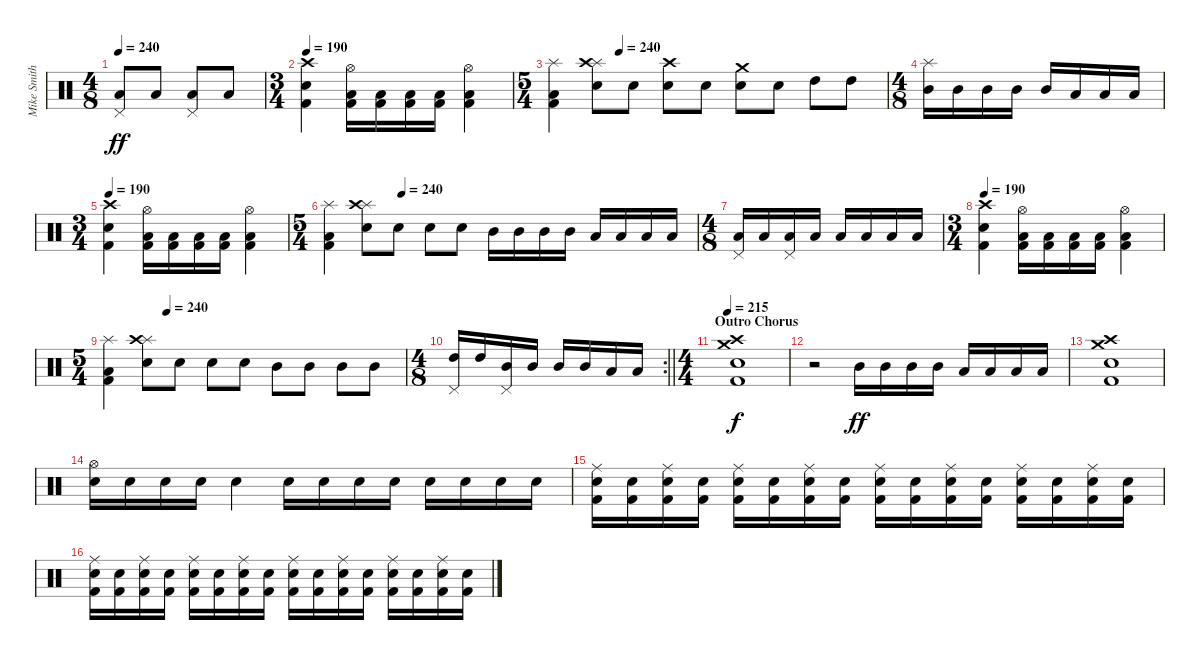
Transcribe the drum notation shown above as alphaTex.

\track ("Mike Smith (Suffocation)" "Mike Smith") {instrument percussion}
\staff {score}
\articulation defaults
\ts (4 8)
\tempo 240
\clef neutral
\ks c
("Pedal Hi-Hat (hit)" "Low Tom (hit)").8{dy ff} "Low Tom (hit)".8 ("Pedal Hi-Hat (hit)" "Low Tom (hit)").8 "Low Tom (hit)".8 |
\ts (3 4)
\tempo 190
("Crash high (hit)" "Snare (hit) 2" "Kick (hit) 2").4 ("Hi-Hat (open)" "Low Tom (hit)" "Kick (hit) 2").16 ("Low Tom (hit)" "Kick (hit) 2").16 ("Low Tom (hit)" "Kick (hit) 2").16 ("Low Tom (hit)" "Kick (hit) 2").16 ("Hi-Hat (open)" "Low Tom (hit)" "Kick (hit) 2").4 |
\ts (5 4)
\tempo (240 0.2)
("Splash (hit)" "Low Tom (hit)" "Kick (hit) 2").4 ("Splash (hit)" "Crash high (hit)" "Snare (hit) 2").8 "Snare (hit) 2".8 ("Crash high (hit)" "Snare (hit) 2").8 "Snare (hit) 2".8 ("Crash medium (hit)" "Snare (hit) 2").8 "Snare (hit) 2".8 "High Tom (hit)".8 "High Tom (hit)".8 |
\ts (4 8)
("Splash (hit)" "Mid Tom (hit)").16 "Mid Tom (hit)".16 "Mid Tom (hit)".16 "Mid Tom (hit)".16 "Mid Tom (hit)".16 "Low Tom (hit)".16 "Low Tom (hit)".16 "Low Tom (hit)".16 |
\ts (3 4)
\tempo 190
("Crash high (hit)" "Snare (hit) 2" "Kick (hit) 2").4 ("Hi-Hat (open)" "Low Tom (hit)" "Kick (hit) 2").16 ("Low Tom (hit)" "Kick (hit) 2").16 ("Low Tom (hit)" "Kick (hit) 2").16 ("Low Tom (hit)" "Kick (hit) 2").16 ("Hi-Hat (open)" "Low Tom (hit)" "Kick (hit) 2").4 |
\ts (5 4)
\tempo (240 0.2)
("Splash (hit)" "Low Tom (hit)" "Kick (hit) 2").4 ("Splash (hit)" "Crash high (hit)" "Snare (hit) 2").8 "Snare (hit) 2".8 "Snare (hit) 2".8 "Snare (hit) 2".8 "Mid Tom (hit)".16 "Mid Tom (hit)".16 "Mid Tom (hit)".16 "Mid Tom (hit)".16 "Low Tom (hit)".16 "Low Tom (hit)".16 "Low Tom (hit)".16 "Low Tom (hit)".16 |
\ts (4 8)
("Pedal Hi-Hat (hit)" "Low Tom (hit)").16 "Low Tom (hit)".16 ("Pedal Hi-Hat (hit)" "Low Tom (hit)").16 "Low Tom (hit)".16 "Low Tom (hit)".16 "Low Tom (hit)".16 "Low Tom (hit)".16 "Low Tom (hit)".16 |
\ts (3 4)
\tempo 190
("Crash high (hit)" "Snare (hit) 2" "Kick (hit) 2").4 ("Hi-Hat (open)" "Low Tom (hit)" "Kick (hit) 2").16 ("Low Tom (hit)" "Kick (hit) 2").16 ("Low Tom (hit)" "Kick (hit) 2").16 ("Low Tom (hit)" "Kick (hit) 2").16 ("Hi-Hat (open)" "Low Tom (hit)" "Kick (hit) 2").4 |
\ts (5 4)
\tempo (240 0.2)
("Splash (hit)" "Low Tom (hit)" "Kick (hit) 2").4 ("Splash (hit)" "Crash high (hit)" "Snare (hit) 2").8 "Snare (hit) 2".8 "Snare (hit) 2".8 "Snare (hit) 2".8 "Mid Tom (hit)".8 "Mid Tom (hit)".8 "Mid Tom (hit)".8 "Mid Tom (hit)".8 |
\rc 2
\ts (4 8)
\barLineRight lightlight
("Pedal Hi-Hat (hit)" "High Tom (hit)").16 "High Tom (hit)".16 ("Pedal Hi-Hat (hit)" "Mid Tom (hit)").16 "Mid Tom (hit)".16 "Mid Tom (hit)".16 "Mid Tom (hit)".16 "Low Tom (hit)".16 "Low Tom (hit)".16 |
\ts (4 4)
\section ("" "Outro Chorus")
\tempo 215
("Crash medium (hit)" "Crash high (hit)" "Snare (hit) 2" "Kick (hit) 2").1{dy f} |
r.2 "Mid Tom (hit)".16{dy ff} "Mid Tom (hit)".16 "Mid Tom (hit)".16 "Mid Tom (hit)".16 "Low Tom (hit)".16 "Low Tom (hit)".16 "Low Tom (hit)".16 "Low Tom (hit)".16 |
("Crash medium (hit)" "Crash high (hit)" "Snare (hit) 2" "Kick (hit) 2").1 |
("Hi-Hat (open)" "Snare (hit) 2").16 "Snare (hit) 2".16 "Snare (hit) 2".16 "Snare (hit) 2".16 "Snare (hit) 2".4 "Snare (hit) 2".16 "Snare (hit) 2".16 "Snare (hit) 2".16 "Snare (hit) 2".16 "Snare (hit) 2".16 "Snare (hit) 2".16 "Snare (hit) 2".16 "Snare (hit) 2".16 |
("Ride (middle)" "Snare (hit) 2" "Kick (hit) 2").16 ("Snare (hit) 2" "Kick (hit) 2").16 ("Ride (middle)" "Snare (hit) 2" "Kick (hit) 2").16 ("Snare (hit) 2" "Kick (hit) 2").16 ("Ride (middle)" "Snare (hit) 2" "Kick (hit) 2").16 ("Snare (hit) 2" "Kick (hit) 2").16 ("Ride (middle)" "Snare (hit) 2" "Kick (hit) 2").16 ("Snare (hit) 2" "Kick (hit) 2").16 ("Ride (middle)" "Snare (hit) 2" "Kick (hit) 2").16 ("Snare (hit) 2" "Kick (hit) 2").16 ("Ride (middle)" "Snare (hit) 2" "Kick (hit) 2").16 ("Snare (hit) 2" "Kick (hit) 2").16 ("Ride (middle)" "Snare (hit) 2" "Kick (hit) 2").16 ("Snare (hit) 2" "Kick (hit) 2").16 ("Ride (middle)" "Snare (hit) 2" "Kick (hit) 2").16 ("Snare (hit) 2" "Kick (hit) 2").16 |
("Ride (middle)" "Snare (hit) 2" "Kick (hit) 2").16 ("Snare (hit) 2" "Kick (hit) 2").16 ("Ride (middle)" "Snare (hit) 2" "Kick (hit) 2").16 ("Snare (hit) 2" "Kick (hit) 2").16 ("Ride (middle)" "Snare (hit) 2" "Kick (hit) 2").16 ("Snare (hit) 2" "Kick (hit) 2").16 ("Ride (middle)" "Snare (hit) 2" "Kick (hit) 2").16 ("Snare (hit) 2" "Kick (hit) 2").16 ("Ride (middle)" "Snare (hit) 2" "Kick (hit) 2").16 ("Snare (hit) 2" "Kick (hit) 2").16 ("Ride (middle)" "Snare (hit) 2" "Kick (hit) 2").16 ("Snare (hit) 2" "Kick (hit) 2").16 ("Ride (middle)" "Snare (hit) 2" "Kick (hit) 2").16 ("Snare (hit) 2" "Kick (hit) 2").16 ("Ride (middle)" "Snare (hit) 2" "Kick (hit) 2").16 ("Snare (hit) 2" "Kick (hit) 2").16
